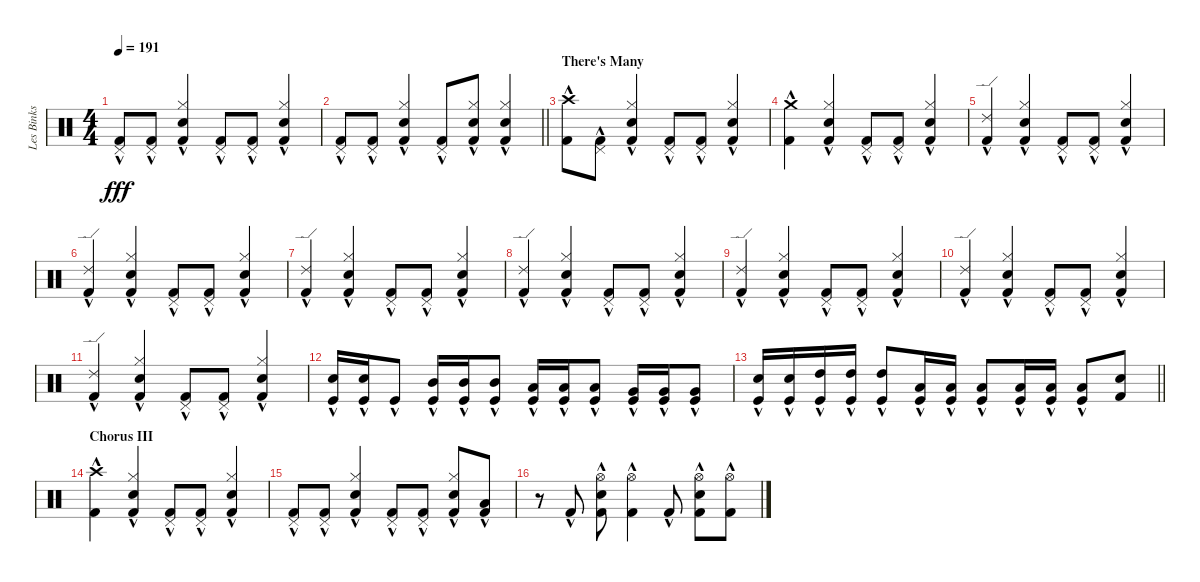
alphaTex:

\track ("Les Binks" "Les Binks") {instrument percussion}
\staff {score}
\articulation defaults
\ts (4 4)
\tempo 191
\clef neutral
\ks c
("Pedal Hi-Hat (hit)" "Kick (hit) 2"{hac}).8{dy fff} ("Pedal Hi-Hat (hit)" "Kick (hit) 2"{hac}).8 ("Hi-Hat (closed)" "Snare (hit) 2" "Kick (hit) 2"{hac}).4 ("Pedal Hi-Hat (hit)" "Kick (hit) 2"{hac}).8 ("Pedal Hi-Hat (hit)" "Kick (hit) 2"{hac}).8 ("Hi-Hat (closed)" "Snare (hit) 2" "Kick (hit) 2"{hac}).4 |
\barLineRight lightlight
("Pedal Hi-Hat (hit)" "Kick (hit) 2"{hac}).8 ("Pedal Hi-Hat (hit)" "Kick (hit) 2"{hac}).8 ("Hi-Hat (closed)" "Snare (hit) 2" "Kick (hit) 2"{hac}).4 ("Pedal Hi-Hat (hit)" "Kick (hit) 2"{hac}).8 ("Hi-Hat (closed)" "Snare (hit) 2" "Kick (hit) 2"{hac}).8 ("Hi-Hat (closed)" "Snare (hit) 2" "Kick (hit) 2"{hac}).4 |
\section ("" "There's Many")
("Crash high (hit)" "Kick (hit) 2"{hac}).8 ("Pedal Hi-Hat (hit)" "Kick (hit) 2"{hac}).8 ("Hi-Hat (closed)" "Snare (hit) 2" "Kick (hit) 2"{hac}).4 ("Pedal Hi-Hat (hit)" "Kick (hit) 2"{hac}).8 ("Pedal Hi-Hat (hit)" "Kick (hit) 2"{hac}).8 ("Hi-Hat (closed)" "Snare (hit) 2" "Kick (hit) 2"{hac}).4 |
("Crash medium (hit)" "Kick (hit) 2"{hac}).4 ("Hi-Hat (closed)" "Snare (hit) 2" "Kick (hit) 2"{hac}).4 ("Pedal Hi-Hat (hit)" "Kick (hit) 2"{hac}).8 ("Pedal Hi-Hat (hit)" "Kick (hit) 2"{hac}).8 ("Hi-Hat (closed)" "Snare (hit) 2" "Kick (hit) 2"{hac}).4 |
("Ride (edge) 2" "Kick (hit) 2"{hac}).4 ("Hi-Hat (closed)" "Snare (hit) 2" "Kick (hit) 2"{hac}).4 ("Pedal Hi-Hat (hit)" "Kick (hit) 2"{hac}).8 ("Pedal Hi-Hat (hit)" "Kick (hit) 2"{hac}).8 ("Hi-Hat (closed)" "Snare (hit) 2" "Kick (hit) 2"{hac}).4 |
("Ride (edge) 2" "Kick (hit) 2"{hac}).4 ("Hi-Hat (closed)" "Snare (hit) 2" "Kick (hit) 2"{hac}).4 ("Pedal Hi-Hat (hit)" "Kick (hit) 2"{hac}).8 ("Pedal Hi-Hat (hit)" "Kick (hit) 2"{hac}).8 ("Hi-Hat (closed)" "Snare (hit) 2" "Kick (hit) 2"{hac}).4 |
("Ride (edge) 2" "Kick (hit) 2"{hac}).4 ("Hi-Hat (closed)" "Snare (hit) 2" "Kick (hit) 2"{hac}).4 ("Pedal Hi-Hat (hit)" "Kick (hit) 2"{hac}).8 ("Pedal Hi-Hat (hit)" "Kick (hit) 2"{hac}).8 ("Hi-Hat (closed)" "Snare (hit) 2" "Kick (hit) 2"{hac}).4 |
("Ride (edge) 2" "Kick (hit) 2"{hac}).4 ("Hi-Hat (closed)" "Snare (hit) 2" "Kick (hit) 2"{hac}).4 ("Pedal Hi-Hat (hit)" "Kick (hit) 2"{hac}).8 ("Pedal Hi-Hat (hit)" "Kick (hit) 2"{hac}).8 ("Hi-Hat (closed)" "Snare (hit) 2" "Kick (hit) 2"{hac}).4 |
("Ride (edge) 2" "Kick (hit) 2"{hac}).4 ("Hi-Hat (closed)" "Snare (hit) 2" "Kick (hit) 2"{hac}).4 ("Pedal Hi-Hat (hit)" "Kick (hit) 2"{hac}).8 ("Pedal Hi-Hat (hit)" "Kick (hit) 2"{hac}).8 ("Hi-Hat (closed)" "Snare (hit) 2" "Kick (hit) 2"{hac}).4 |
("Ride (edge) 2" "Kick (hit) 2"{hac}).4 ("Hi-Hat (closed)" "Snare (hit) 2" "Kick (hit) 2"{hac}).4 ("Pedal Hi-Hat (hit)" "Kick (hit) 2"{hac}).8 ("Pedal Hi-Hat (hit)" "Kick (hit) 2"{hac}).8 ("Hi-Hat (closed)" "Snare (hit) 2" "Kick (hit) 2"{hac}).4 |
("Ride (edge) 2" "Kick (hit) 2"{hac}).4 ("Hi-Hat (closed)" "Snare (hit) 2" "Kick (hit) 2"{hac}).4 ("Pedal Hi-Hat (hit)" "Kick (hit) 2"{hac}).8 ("Pedal Hi-Hat (hit)" "Kick (hit) 2"{hac}).8 ("Hi-Hat (closed)" "Snare (hit) 2" "Kick (hit) 2"{hac}).4 |
("Snare (hit) 2" "Kick (hit)"{hac}).16 ("Snare (hit) 2" "Kick (hit)"{hac}).16 "Kick (hit)"{hac}.8 ("Mid Tom (hit)" "Kick (hit)"{hac}).16 ("Mid Tom (hit)" "Kick (hit)"{hac}).16 ("Mid Tom (hit)" "Kick (hit)"{hac}).8 ("Low Tom (hit)" "Kick (hit)"{hac}).16 ("Low Tom (hit)" "Kick (hit)"{hac}).16 ("Low Tom (hit)" "Kick (hit)"{hac}).8 ("Very Low Tom (hit)" "Kick (hit)"{hac}).16 ("Very Low Tom (hit)" "Kick (hit)"{hac}).16 ("Very Low Tom (hit)" "Kick (hit)"{hac}).8 |
\barLineRight lightlight
("Snare (hit) 2" "Kick (hit)"{hac}).16 ("Snare (hit) 2" "Kick (hit)"{hac}).16 ("High Tom (hit)" "Kick (hit)"{hac}).16 ("High Tom (hit)" "Kick (hit)"{hac}).16 ("High Tom (hit)" "Kick (hit)"{hac}).8 ("Low Tom (hit)" "Kick (hit)"{hac}).16 ("Low Tom (hit)" "Kick (hit)"{hac}).16 ("Low Tom (hit)" "Kick (hit)"{hac}).8 ("Low Floor Tom (hit)" "Kick (hit)"{hac}).16 ("Low Floor Tom (hit)" "Kick (hit)"{hac}).16 ("Low Floor Tom (hit)" "Kick (hit)"{hac}).8 ("Snare (hit) 2" "Kick (hit) 2").8 |
\section ("" "Chorus III")
("Crash high (hit)" "Kick (hit) 2"{hac}).4 ("Hi-Hat (closed)" "Snare (hit) 2" "Kick (hit) 2"{hac}).4 ("Pedal Hi-Hat (hit)" "Kick (hit) 2"{hac}).8 ("Pedal Hi-Hat (hit)" "Kick (hit) 2"{hac}).8 ("Hi-Hat (closed)" "Snare (hit) 2" "Kick (hit) 2"{hac}).4 |
("Pedal Hi-Hat (hit)" "Kick (hit) 2"{hac}).8 ("Pedal Hi-Hat (hit)" "Kick (hit) 2"{hac}).8 ("Hi-Hat (closed)" "Snare (hit) 2" "Kick (hit) 2"{hac}).4 ("Pedal Hi-Hat (hit)" "Kick (hit) 2"{hac}).8 ("Pedal Hi-Hat (hit)" "Kick (hit) 2"{hac}).8 ("Hi-Hat (closed)" "Snare (hit) 2" "Kick (hit) 2"{hac}).8 ("Low Tom (hit)"{hac} "Kick (hit) 2"{hac}).8 |
r.8 "Kick (hit) 2"{hac}.8 ("Hi-Hat (open)" "Snare (hit) 2" "Kick (hit) 2"{hac}).8 ("Hi-Hat (open)" "Kick (hit) 2"{hac}).4 "Kick (hit) 2"{hac}.8 ("Hi-Hat (open)" "Snare (hit) 2" "Kick (hit) 2"{hac}).8 ("Hi-Hat (open)" "Kick (hit) 2"{hac}).8
